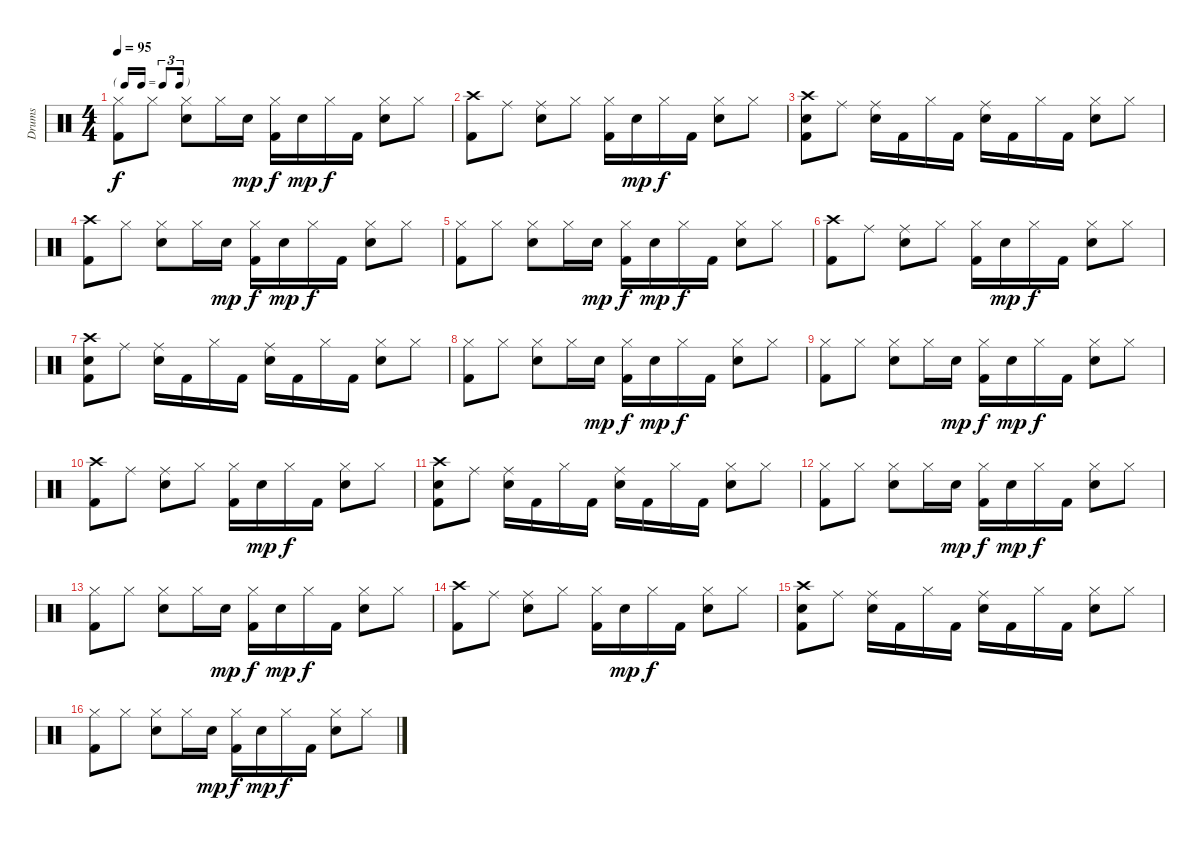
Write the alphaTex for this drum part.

\track ("Drums" "Drums") {instrument percussion}
\staff {score}
\articulation defaults
\ts (4 4)
\tf triplet16th
\tempo 95
\clef neutral
\ks c
("Hi-Hat (closed)" "Kick (hit) 2").8{dy f} "Hi-Hat (closed)".8 ("Hi-Hat (closed)" "Snare (hit) 2").8 "Hi-Hat (closed)".16 "Snare (hit) 2".16{dy mp} ("Hi-Hat (closed)" "Kick (hit) 2").16{dy f} "Snare (hit) 2".16{dy mp} "Hi-Hat (closed)".16{dy f} "Kick (hit) 2".16 ("Hi-Hat (closed)" "Snare (hit) 2").8 "Hi-Hat (closed)".8 |
("Crash high (hit)" "Kick (hit) 2").8 "Ride (middle)".8 ("Ride (middle)" "Snare (hit) 2").8 "Hi-Hat (closed)".8 ("Hi-Hat (closed)" "Kick (hit) 2").16 "Snare (hit) 2".16{dy mp} "Hi-Hat (closed)".16{dy f} "Kick (hit) 2".16 ("Hi-Hat (closed)" "Snare (hit) 2").8 "Hi-Hat (closed)".8 |
("Crash high (hit)" "Snare (hit) 2" "Kick (hit) 2").8 "Ride (middle)".8 ("Ride (middle)" "Snare (hit) 2").16 "Kick (hit) 2".16 "Hi-Hat (closed)".16 "Kick (hit) 2".16 ("Ride (middle)" "Snare (hit) 2").16 "Kick (hit) 2".16 "Hi-Hat (closed)".16 "Kick (hit) 2".16 ("Hi-Hat (closed)" "Snare (hit) 2").8 "Hi-Hat (closed)".8 |
("Crash high (hit)" "Kick (hit) 2").8 "Hi-Hat (closed)".8 ("Hi-Hat (closed)" "Snare (hit) 2").8 "Hi-Hat (closed)".16 "Snare (hit) 2".16{dy mp} ("Hi-Hat (closed)" "Kick (hit) 2").16{dy f} "Snare (hit) 2".16{dy mp} "Hi-Hat (closed)".16{dy f} "Kick (hit) 2".16 ("Hi-Hat (closed)" "Snare (hit) 2").8 "Hi-Hat (closed)".8 |
("Hi-Hat (closed)" "Kick (hit) 2").8 "Hi-Hat (closed)".8 ("Hi-Hat (closed)" "Snare (hit) 2").8 "Hi-Hat (closed)".16 "Snare (hit) 2".16{dy mp} ("Hi-Hat (closed)" "Kick (hit) 2").16{dy f} "Snare (hit) 2".16{dy mp} "Hi-Hat (closed)".16{dy f} "Kick (hit) 2".16 ("Hi-Hat (closed)" "Snare (hit) 2").8 "Hi-Hat (closed)".8 |
("Crash high (hit)" "Kick (hit) 2").8 "Ride (middle)".8 ("Ride (middle)" "Snare (hit) 2").8 "Hi-Hat (closed)".8 ("Hi-Hat (closed)" "Kick (hit) 2").16 "Snare (hit) 2".16{dy mp} "Hi-Hat (closed)".16{dy f} "Kick (hit) 2".16 ("Hi-Hat (closed)" "Snare (hit) 2").8 "Hi-Hat (closed)".8 |
("Crash high (hit)" "Snare (hit) 2" "Kick (hit) 2").8 "Ride (middle)".8 ("Ride (middle)" "Snare (hit) 2").16 "Kick (hit) 2".16 "Hi-Hat (closed)".16 "Kick (hit) 2".16 ("Ride (middle)" "Snare (hit) 2").16 "Kick (hit) 2".16 "Hi-Hat (closed)".16 "Kick (hit) 2".16 ("Hi-Hat (closed)" "Snare (hit) 2").8 "Hi-Hat (closed)".8 |
("Hi-Hat (closed)" "Kick (hit) 2").8 "Hi-Hat (closed)".8 ("Hi-Hat (closed)" "Snare (hit) 2").8 "Hi-Hat (closed)".16 "Snare (hit) 2".16{dy mp} ("Hi-Hat (closed)" "Kick (hit) 2").16{dy f} "Snare (hit) 2".16{dy mp} "Hi-Hat (closed)".16{dy f} "Kick (hit) 2".16 ("Hi-Hat (closed)" "Snare (hit) 2").8 "Hi-Hat (closed)".8 |
("Hi-Hat (closed)" "Kick (hit) 2").8 "Hi-Hat (closed)".8 ("Hi-Hat (closed)" "Snare (hit) 2").8 "Hi-Hat (closed)".16 "Snare (hit) 2".16{dy mp} ("Hi-Hat (closed)" "Kick (hit) 2").16{dy f} "Snare (hit) 2".16{dy mp} "Hi-Hat (closed)".16{dy f} "Kick (hit) 2".16 ("Hi-Hat (closed)" "Snare (hit) 2").8 "Hi-Hat (closed)".8 |
("Crash high (hit)" "Kick (hit) 2").8 "Ride (middle)".8 ("Ride (middle)" "Snare (hit) 2").8 "Hi-Hat (closed)".8 ("Hi-Hat (closed)" "Kick (hit) 2").16 "Snare (hit) 2".16{dy mp} "Hi-Hat (closed)".16{dy f} "Kick (hit) 2".16 ("Hi-Hat (closed)" "Snare (hit) 2").8 "Hi-Hat (closed)".8 |
("Crash high (hit)" "Snare (hit) 2" "Kick (hit) 2").8 "Ride (middle)".8 ("Ride (middle)" "Snare (hit) 2").16 "Kick (hit) 2".16 "Hi-Hat (closed)".16 "Kick (hit) 2".16 ("Ride (middle)" "Snare (hit) 2").16 "Kick (hit) 2".16 "Hi-Hat (closed)".16 "Kick (hit) 2".16 ("Hi-Hat (closed)" "Snare (hit) 2").8 "Hi-Hat (closed)".8 |
("Hi-Hat (closed)" "Kick (hit) 2").8 "Hi-Hat (closed)".8 ("Hi-Hat (closed)" "Snare (hit) 2").8 "Hi-Hat (closed)".16 "Snare (hit) 2".16{dy mp} ("Hi-Hat (closed)" "Kick (hit) 2").16{dy f} "Snare (hit) 2".16{dy mp} "Hi-Hat (closed)".16{dy f} "Kick (hit) 2".16 ("Hi-Hat (closed)" "Snare (hit) 2").8 "Hi-Hat (closed)".8 |
("Hi-Hat (closed)" "Kick (hit) 2").8 "Hi-Hat (closed)".8 ("Hi-Hat (closed)" "Snare (hit) 2").8 "Hi-Hat (closed)".16 "Snare (hit) 2".16{dy mp} ("Hi-Hat (closed)" "Kick (hit) 2").16{dy f} "Snare (hit) 2".16{dy mp} "Hi-Hat (closed)".16{dy f} "Kick (hit) 2".16 ("Hi-Hat (closed)" "Snare (hit) 2").8 "Hi-Hat (closed)".8 |
("Crash high (hit)" "Kick (hit) 2").8 "Ride (middle)".8 ("Ride (middle)" "Snare (hit) 2").8 "Hi-Hat (closed)".8 ("Hi-Hat (closed)" "Kick (hit) 2").16 "Snare (hit) 2".16{dy mp} "Hi-Hat (closed)".16{dy f} "Kick (hit) 2".16 ("Hi-Hat (closed)" "Snare (hit) 2").8 "Hi-Hat (closed)".8 |
("Crash high (hit)" "Snare (hit) 2" "Kick (hit) 2").8 "Ride (middle)".8 ("Ride (middle)" "Snare (hit) 2").16 "Kick (hit) 2".16 "Hi-Hat (closed)".16 "Kick (hit) 2".16 ("Ride (middle)" "Snare (hit) 2").16 "Kick (hit) 2".16 "Hi-Hat (closed)".16 "Kick (hit) 2".16 ("Hi-Hat (closed)" "Snare (hit) 2").8 "Hi-Hat (closed)".8 |
("Hi-Hat (closed)" "Kick (hit) 2").8 "Hi-Hat (closed)".8 ("Hi-Hat (closed)" "Snare (hit) 2").8 "Hi-Hat (closed)".16 "Snare (hit) 2".16{dy mp} ("Hi-Hat (closed)" "Kick (hit) 2").16{dy f} "Snare (hit) 2".16{dy mp} "Hi-Hat (closed)".16{dy f} "Kick (hit) 2".16 ("Hi-Hat (closed)" "Snare (hit) 2").8 "Hi-Hat (closed)".8
